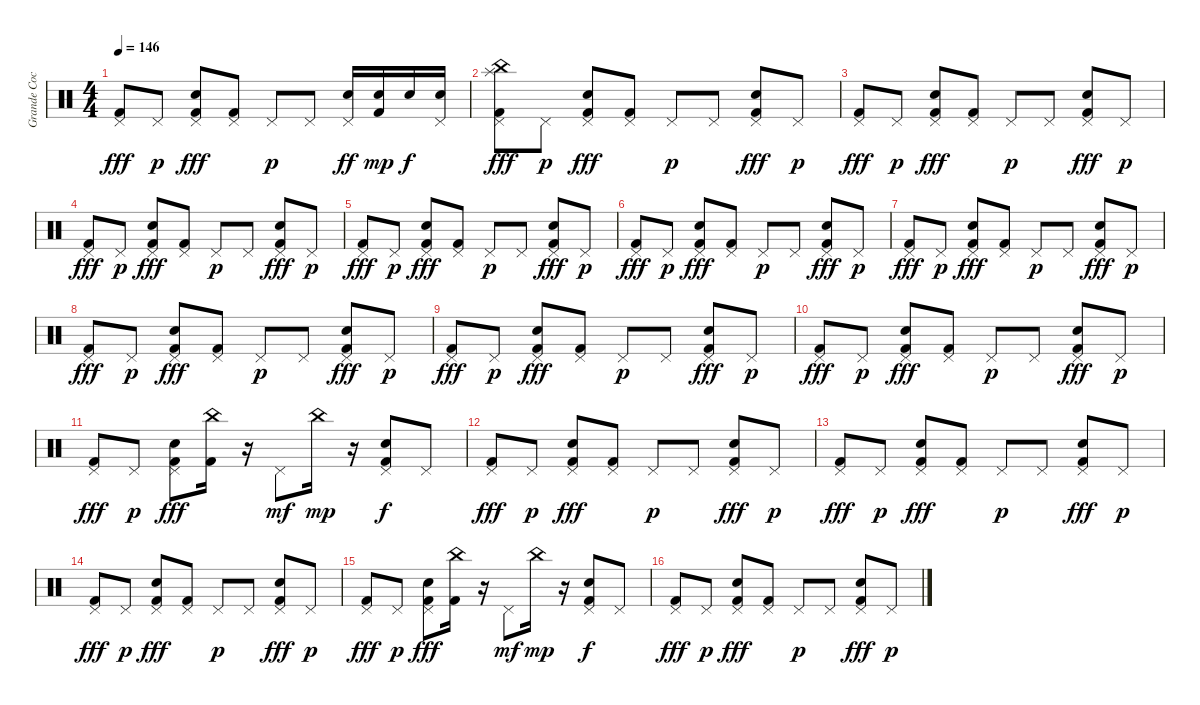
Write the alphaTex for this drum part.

\track ("Grande Coco !" "Grande Coc") {instrument percussion}
\staff {score}
\articulation defaults
\ts (4 4)
\tempo 146
\clef neutral
\ks c
("Pedal Hi-Hat (hit)" "Kick (hit) 2").8{dy fff} "Pedal Hi-Hat (hit)".8{dy p} ("Pedal Hi-Hat (hit)" "Electric Snare (hit)" "Kick (hit) 2").8{dy fff} ("Pedal Hi-Hat (hit)" "Kick (hit) 2").8 "Pedal Hi-Hat (hit)".8{dy p} "Pedal Hi-Hat (hit)".8 ("Pedal Hi-Hat (hit)" "Electric Snare (hit)").16{dy ff} ("Electric Snare (hit)" "Kick (hit) 2").16{dy mp} "Electric Snare (hit)".16{dy f} ("Pedal Hi-Hat (hit)" "Electric Snare (hit)").16 |
("Pedal Hi-Hat (hit)" "China (hit)" "Splash (hit)" "Kick (hit) 2").8{dy fff} "Pedal Hi-Hat (hit)".8{dy p} ("Pedal Hi-Hat (hit)" "Electric Snare (hit)" "Kick (hit) 2").8{dy fff} ("Pedal Hi-Hat (hit)" "Kick (hit) 2").8 "Pedal Hi-Hat (hit)".8{dy p} "Pedal Hi-Hat (hit)".8 ("Pedal Hi-Hat (hit)" "Electric Snare (hit)" "Kick (hit) 2").8{dy fff} "Pedal Hi-Hat (hit)".8{dy p} |
("Pedal Hi-Hat (hit)" "Kick (hit) 2").8{dy fff} "Pedal Hi-Hat (hit)".8{dy p} ("Pedal Hi-Hat (hit)" "Electric Snare (hit)" "Kick (hit) 2").8{dy fff} ("Pedal Hi-Hat (hit)" "Kick (hit) 2").8 "Pedal Hi-Hat (hit)".8{dy p} "Pedal Hi-Hat (hit)".8 ("Pedal Hi-Hat (hit)" "Electric Snare (hit)" "Kick (hit) 2").8{dy fff} "Pedal Hi-Hat (hit)".8{dy p} |
("Pedal Hi-Hat (hit)" "Kick (hit) 2").8{dy fff} "Pedal Hi-Hat (hit)".8{dy p} ("Pedal Hi-Hat (hit)" "Electric Snare (hit)" "Kick (hit) 2").8{dy fff} ("Pedal Hi-Hat (hit)" "Kick (hit) 2").8 "Pedal Hi-Hat (hit)".8{dy p} "Pedal Hi-Hat (hit)".8 ("Pedal Hi-Hat (hit)" "Electric Snare (hit)" "Kick (hit) 2").8{dy fff} "Pedal Hi-Hat (hit)".8{dy p} |
("Pedal Hi-Hat (hit)" "Kick (hit) 2").8{dy fff} "Pedal Hi-Hat (hit)".8{dy p} ("Pedal Hi-Hat (hit)" "Electric Snare (hit)" "Kick (hit) 2").8{dy fff} ("Pedal Hi-Hat (hit)" "Kick (hit) 2").8 "Pedal Hi-Hat (hit)".8{dy p} "Pedal Hi-Hat (hit)".8 ("Pedal Hi-Hat (hit)" "Electric Snare (hit)" "Kick (hit) 2").8{dy fff} "Pedal Hi-Hat (hit)".8{dy p} |
("Pedal Hi-Hat (hit)" "Kick (hit) 2").8{dy fff} "Pedal Hi-Hat (hit)".8{dy p} ("Pedal Hi-Hat (hit)" "Electric Snare (hit)" "Kick (hit) 2").8{dy fff} ("Pedal Hi-Hat (hit)" "Kick (hit) 2").8 "Pedal Hi-Hat (hit)".8{dy p} "Pedal Hi-Hat (hit)".8 ("Pedal Hi-Hat (hit)" "Electric Snare (hit)" "Kick (hit) 2").8{dy fff} "Pedal Hi-Hat (hit)".8{dy p} |
("Pedal Hi-Hat (hit)" "Kick (hit) 2").8{dy fff} "Pedal Hi-Hat (hit)".8{dy p} ("Pedal Hi-Hat (hit)" "Electric Snare (hit)" "Kick (hit) 2").8{dy fff} ("Pedal Hi-Hat (hit)" "Kick (hit) 2").8 "Pedal Hi-Hat (hit)".8{dy p} "Pedal Hi-Hat (hit)".8 ("Pedal Hi-Hat (hit)" "Electric Snare (hit)" "Kick (hit) 2").8{dy fff} "Pedal Hi-Hat (hit)".8{dy p} |
("Pedal Hi-Hat (hit)" "Kick (hit) 2").8{dy fff} "Pedal Hi-Hat (hit)".8{dy p} ("Pedal Hi-Hat (hit)" "Electric Snare (hit)" "Kick (hit) 2").8{dy fff} ("Pedal Hi-Hat (hit)" "Kick (hit) 2").8 "Pedal Hi-Hat (hit)".8{dy p} "Pedal Hi-Hat (hit)".8 ("Pedal Hi-Hat (hit)" "Electric Snare (hit)" "Kick (hit) 2").8{dy fff} "Pedal Hi-Hat (hit)".8{dy p} |
("Pedal Hi-Hat (hit)" "Kick (hit) 2").8{dy fff} "Pedal Hi-Hat (hit)".8{dy p} ("Pedal Hi-Hat (hit)" "Electric Snare (hit)" "Kick (hit) 2").8{dy fff} ("Pedal Hi-Hat (hit)" "Kick (hit) 2").8 "Pedal Hi-Hat (hit)".8{dy p} "Pedal Hi-Hat (hit)".8 ("Pedal Hi-Hat (hit)" "Electric Snare (hit)" "Kick (hit) 2").8{dy fff} "Pedal Hi-Hat (hit)".8{dy p} |
("Pedal Hi-Hat (hit)" "Kick (hit) 2").8{dy fff} "Pedal Hi-Hat (hit)".8{dy p} ("Pedal Hi-Hat (hit)" "Electric Snare (hit)" "Kick (hit) 2").8{dy fff} ("Pedal Hi-Hat (hit)" "Kick (hit) 2").8 "Pedal Hi-Hat (hit)".8{dy p} "Pedal Hi-Hat (hit)".8 ("Pedal Hi-Hat (hit)" "Electric Snare (hit)" "Kick (hit) 2").8{dy fff} "Pedal Hi-Hat (hit)".8{dy p} |
("Pedal Hi-Hat (hit)" "Kick (hit) 2").8{dy fff} "Pedal Hi-Hat (hit)".8{dy p} ("Pedal Hi-Hat (hit)" "Electric Snare (hit)" "Kick (hit) 2").8{dy fff} ("China (hit)" "Kick (hit) 2").16 r.16 "Pedal Hi-Hat (hit)".8{dy mf} "China (hit)".16{dy mp} r.16 ("Pedal Hi-Hat (hit)" "Electric Snare (hit)" "Kick (hit) 2").8{dy f} "Pedal Hi-Hat (hit)".8 |
("Pedal Hi-Hat (hit)" "Kick (hit) 2").8{dy fff} "Pedal Hi-Hat (hit)".8{dy p} ("Pedal Hi-Hat (hit)" "Electric Snare (hit)" "Kick (hit) 2").8{dy fff} ("Pedal Hi-Hat (hit)" "Kick (hit) 2").8 "Pedal Hi-Hat (hit)".8{dy p} "Pedal Hi-Hat (hit)".8 ("Pedal Hi-Hat (hit)" "Electric Snare (hit)" "Kick (hit) 2").8{dy fff} "Pedal Hi-Hat (hit)".8{dy p} |
("Pedal Hi-Hat (hit)" "Kick (hit) 2").8{dy fff} "Pedal Hi-Hat (hit)".8{dy p} ("Pedal Hi-Hat (hit)" "Electric Snare (hit)" "Kick (hit) 2").8{dy fff} ("Pedal Hi-Hat (hit)" "Kick (hit) 2").8 "Pedal Hi-Hat (hit)".8{dy p} "Pedal Hi-Hat (hit)".8 ("Pedal Hi-Hat (hit)" "Electric Snare (hit)" "Kick (hit) 2").8{dy fff} "Pedal Hi-Hat (hit)".8{dy p} |
("Pedal Hi-Hat (hit)" "Kick (hit) 2").8{dy fff} "Pedal Hi-Hat (hit)".8{dy p} ("Pedal Hi-Hat (hit)" "Electric Snare (hit)" "Kick (hit) 2").8{dy fff} ("Pedal Hi-Hat (hit)" "Kick (hit) 2").8 "Pedal Hi-Hat (hit)".8{dy p} "Pedal Hi-Hat (hit)".8 ("Pedal Hi-Hat (hit)" "Electric Snare (hit)" "Kick (hit) 2").8{dy fff} "Pedal Hi-Hat (hit)".8{dy p} |
("Pedal Hi-Hat (hit)" "Kick (hit) 2").8{dy fff} "Pedal Hi-Hat (hit)".8{dy p} ("Pedal Hi-Hat (hit)" "Electric Snare (hit)" "Kick (hit) 2").8{dy fff} ("China (hit)" "Kick (hit) 2").16 r.16 "Pedal Hi-Hat (hit)".8{dy mf} "China (hit)".16{dy mp} r.16 ("Pedal Hi-Hat (hit)" "Electric Snare (hit)" "Kick (hit) 2").8{dy f} "Pedal Hi-Hat (hit)".8 |
("Pedal Hi-Hat (hit)" "Kick (hit) 2").8{dy fff} "Pedal Hi-Hat (hit)".8{dy p} ("Pedal Hi-Hat (hit)" "Electric Snare (hit)" "Kick (hit) 2").8{dy fff} ("Pedal Hi-Hat (hit)" "Kick (hit) 2").8 "Pedal Hi-Hat (hit)".8{dy p} "Pedal Hi-Hat (hit)".8 ("Pedal Hi-Hat (hit)" "Electric Snare (hit)" "Kick (hit) 2").8{dy fff} "Pedal Hi-Hat (hit)".8{dy p}
